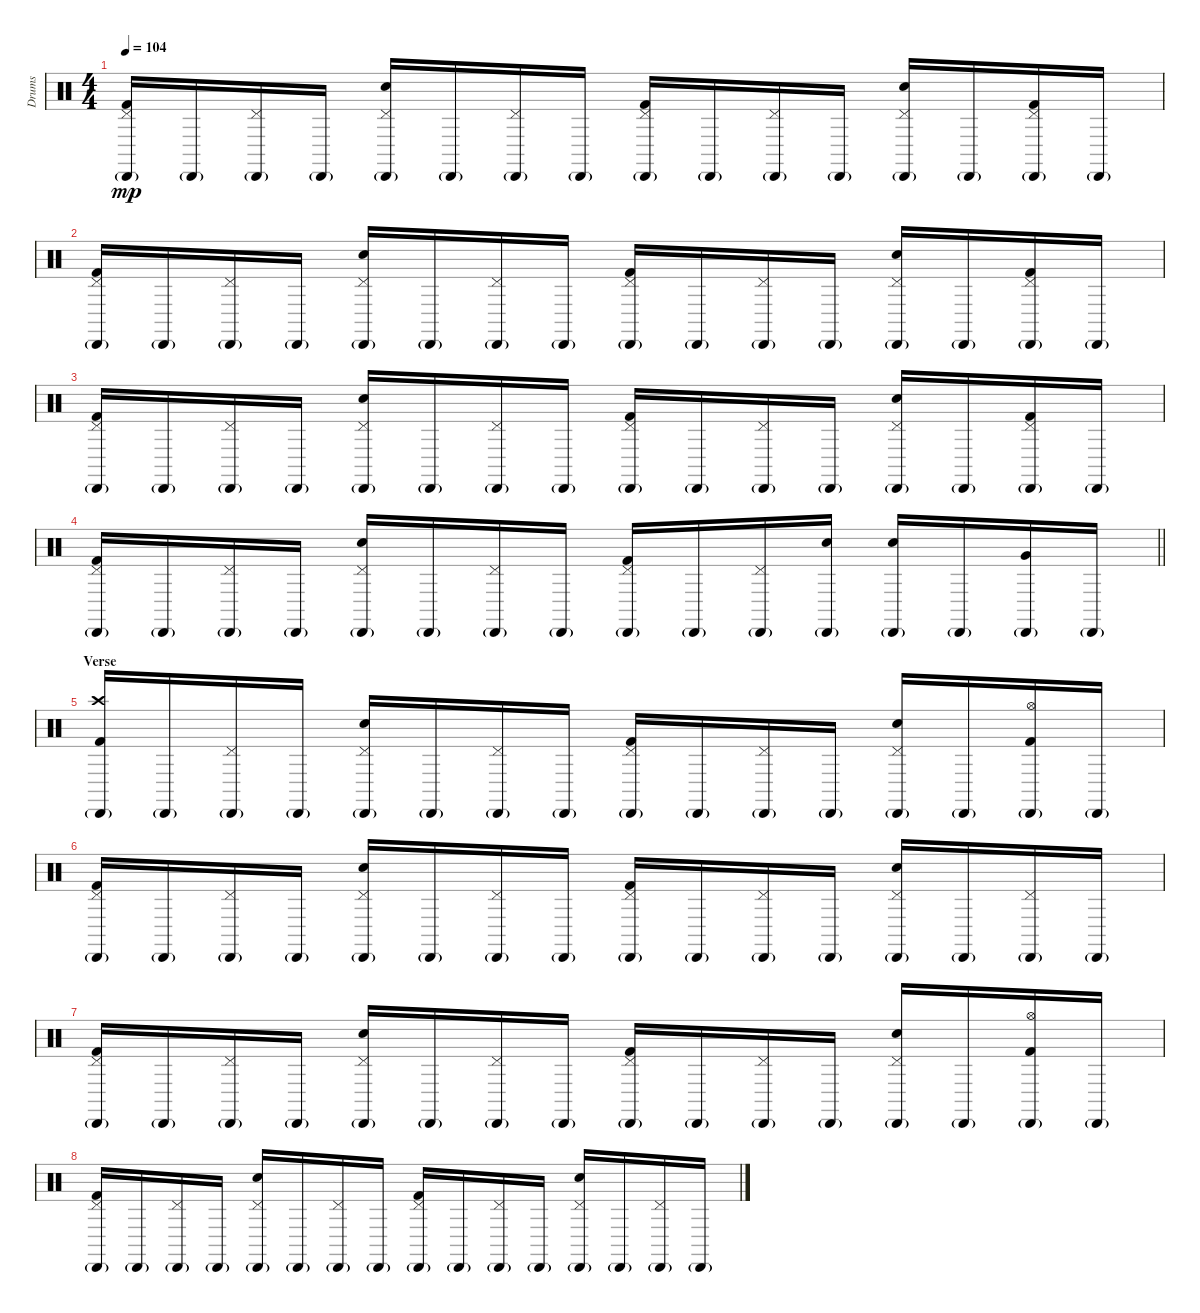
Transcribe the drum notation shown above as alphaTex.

\track ("Drums" "Drums") {instrument percussion}
\staff {score}
\articulation defaults
\ts (4 4)
\tempo 104
\clef neutral
\ks c
("Pedal Hi-Hat (hit)" "Cabasa (hit)"{g} "Kick (hit) 2").16{dy mp} "Cabasa (hit)"{g}.16 ("Pedal Hi-Hat (hit)" "Cabasa (hit)"{g}).16 "Cabasa (hit)"{g}.16 ("Snare (hit) 2" "Pedal Hi-Hat (hit)" "Cabasa (hit)"{g}).16 "Cabasa (hit)"{g}.16 ("Pedal Hi-Hat (hit)" "Cabasa (hit)"{g}).16 "Cabasa (hit)"{g}.16 ("Pedal Hi-Hat (hit)" "Cabasa (hit)"{g} "Kick (hit) 2").16 "Cabasa (hit)"{g}.16 ("Pedal Hi-Hat (hit)" "Cabasa (hit)"{g}).16 "Cabasa (hit)"{g}.16 ("Snare (hit) 2" "Pedal Hi-Hat (hit)" "Cabasa (hit)"{g}).16 "Cabasa (hit)"{g}.16 ("Pedal Hi-Hat (hit)" "Cabasa (hit)"{g} "Kick (hit) 2").16 "Cabasa (hit)"{g}.16 |
("Pedal Hi-Hat (hit)" "Cabasa (hit)"{g} "Kick (hit) 2").16 "Cabasa (hit)"{g}.16 ("Pedal Hi-Hat (hit)" "Cabasa (hit)"{g}).16 "Cabasa (hit)"{g}.16 ("Snare (hit) 2" "Pedal Hi-Hat (hit)" "Cabasa (hit)"{g}).16 "Cabasa (hit)"{g}.16 ("Pedal Hi-Hat (hit)" "Cabasa (hit)"{g}).16 "Cabasa (hit)"{g}.16 ("Pedal Hi-Hat (hit)" "Cabasa (hit)"{g} "Kick (hit) 2").16 "Cabasa (hit)"{g}.16 ("Pedal Hi-Hat (hit)" "Cabasa (hit)"{g}).16 "Cabasa (hit)"{g}.16 ("Snare (hit) 2" "Pedal Hi-Hat (hit)" "Cabasa (hit)"{g}).16 "Cabasa (hit)"{g}.16 ("Pedal Hi-Hat (hit)" "Cabasa (hit)"{g} "Kick (hit) 2").16 "Cabasa (hit)"{g}.16 |
("Pedal Hi-Hat (hit)" "Cabasa (hit)"{g} "Kick (hit) 2").16 "Cabasa (hit)"{g}.16 ("Pedal Hi-Hat (hit)" "Cabasa (hit)"{g}).16 "Cabasa (hit)"{g}.16 ("Snare (hit) 2" "Pedal Hi-Hat (hit)" "Cabasa (hit)"{g}).16 "Cabasa (hit)"{g}.16 ("Pedal Hi-Hat (hit)" "Cabasa (hit)"{g}).16 "Cabasa (hit)"{g}.16 ("Pedal Hi-Hat (hit)" "Cabasa (hit)"{g} "Kick (hit) 2").16 "Cabasa (hit)"{g}.16 ("Pedal Hi-Hat (hit)" "Cabasa (hit)"{g}).16 "Cabasa (hit)"{g}.16 ("Snare (hit) 2" "Pedal Hi-Hat (hit)" "Cabasa (hit)"{g}).16 "Cabasa (hit)"{g}.16 ("Pedal Hi-Hat (hit)" "Cabasa (hit)"{g} "Kick (hit) 2").16 "Cabasa (hit)"{g}.16 |
\barLineRight lightlight
("Pedal Hi-Hat (hit)" "Cabasa (hit)"{g} "Kick (hit) 2").16 "Cabasa (hit)"{g}.16 ("Pedal Hi-Hat (hit)" "Cabasa (hit)"{g}).16 "Cabasa (hit)"{g}.16 ("Snare (hit) 2" "Pedal Hi-Hat (hit)" "Cabasa (hit)"{g}).16 "Cabasa (hit)"{g}.16 ("Pedal Hi-Hat (hit)" "Cabasa (hit)"{g}).16 "Cabasa (hit)"{g}.16 ("Pedal Hi-Hat (hit)" "Cabasa (hit)"{g} "Kick (hit) 2").16 "Cabasa (hit)"{g}.16 ("Pedal Hi-Hat (hit)" "Cabasa (hit)"{g}).16 ("Snare (hit) 2" "Cabasa (hit)"{g}).16 ("Snare (hit) 2" "Cabasa (hit)"{g}).16 "Cabasa (hit)"{g}.16 ("Very Low Tom (hit)" "Cabasa (hit)"{g}).16 "Cabasa (hit)"{g}.16 |
\section ("" "Verse")
("Crash high (hit)" "Cabasa (hit)"{g} "Kick (hit) 2").16 "Cabasa (hit)"{g}.16 ("Pedal Hi-Hat (hit)" "Cabasa (hit)"{g}).16 "Cabasa (hit)"{g}.16 ("Snare (hit) 2" "Pedal Hi-Hat (hit)" "Cabasa (hit)"{g}).16 "Cabasa (hit)"{g}.16 ("Pedal Hi-Hat (hit)" "Cabasa (hit)"{g}).16 "Cabasa (hit)"{g}.16 ("Pedal Hi-Hat (hit)" "Cabasa (hit)"{g} "Kick (hit) 2").16 "Cabasa (hit)"{g}.16 ("Pedal Hi-Hat (hit)" "Cabasa (hit)"{g}).16 "Cabasa (hit)"{g}.16 ("Snare (hit) 2" "Pedal Hi-Hat (hit)" "Cabasa (hit)"{g}).16 "Cabasa (hit)"{g}.16 ("Hi-Hat (open)" "Cabasa (hit)"{g} "Kick (hit) 2").16 "Cabasa (hit)"{g}.16 |
("Pedal Hi-Hat (hit)" "Cabasa (hit)"{g} "Kick (hit) 2").16 "Cabasa (hit)"{g}.16 ("Pedal Hi-Hat (hit)" "Cabasa (hit)"{g}).16 "Cabasa (hit)"{g}.16 ("Snare (hit) 2" "Pedal Hi-Hat (hit)" "Cabasa (hit)"{g}).16 "Cabasa (hit)"{g}.16 ("Pedal Hi-Hat (hit)" "Cabasa (hit)"{g}).16 "Cabasa (hit)"{g}.16 ("Pedal Hi-Hat (hit)" "Cabasa (hit)"{g} "Kick (hit) 2").16 "Cabasa (hit)"{g}.16 ("Pedal Hi-Hat (hit)" "Cabasa (hit)"{g}).16 "Cabasa (hit)"{g}.16 ("Snare (hit) 2" "Pedal Hi-Hat (hit)" "Cabasa (hit)"{g}).16 "Cabasa (hit)"{g}.16 ("Pedal Hi-Hat (hit)" "Cabasa (hit)"{g}).16 "Cabasa (hit)"{g}.16 |
("Pedal Hi-Hat (hit)" "Cabasa (hit)"{g} "Kick (hit) 2").16 "Cabasa (hit)"{g}.16 ("Pedal Hi-Hat (hit)" "Cabasa (hit)"{g}).16 "Cabasa (hit)"{g}.16 ("Snare (hit) 2" "Pedal Hi-Hat (hit)" "Cabasa (hit)"{g}).16 "Cabasa (hit)"{g}.16 ("Pedal Hi-Hat (hit)" "Cabasa (hit)"{g}).16 "Cabasa (hit)"{g}.16 ("Pedal Hi-Hat (hit)" "Cabasa (hit)"{g} "Kick (hit) 2").16 "Cabasa (hit)"{g}.16 ("Pedal Hi-Hat (hit)" "Cabasa (hit)"{g}).16 "Cabasa (hit)"{g}.16 ("Snare (hit) 2" "Pedal Hi-Hat (hit)" "Cabasa (hit)"{g}).16 "Cabasa (hit)"{g}.16 ("Hi-Hat (open)" "Cabasa (hit)"{g} "Kick (hit) 2").16 "Cabasa (hit)"{g}.16 |
("Pedal Hi-Hat (hit)" "Cabasa (hit)"{g} "Kick (hit) 2").16 "Cabasa (hit)"{g}.16 ("Pedal Hi-Hat (hit)" "Cabasa (hit)"{g}).16 "Cabasa (hit)"{g}.16 ("Snare (hit) 2" "Pedal Hi-Hat (hit)" "Cabasa (hit)"{g}).16 "Cabasa (hit)"{g}.16 ("Pedal Hi-Hat (hit)" "Cabasa (hit)"{g}).16 "Cabasa (hit)"{g}.16 ("Pedal Hi-Hat (hit)" "Cabasa (hit)"{g} "Kick (hit) 2").16 "Cabasa (hit)"{g}.16 ("Pedal Hi-Hat (hit)" "Cabasa (hit)"{g}).16 "Cabasa (hit)"{g}.16 ("Snare (hit) 2" "Pedal Hi-Hat (hit)" "Cabasa (hit)"{g}).16 "Cabasa (hit)"{g}.16 ("Pedal Hi-Hat (hit)" "Cabasa (hit)"{g}).16 "Cabasa (hit)"{g}.16
